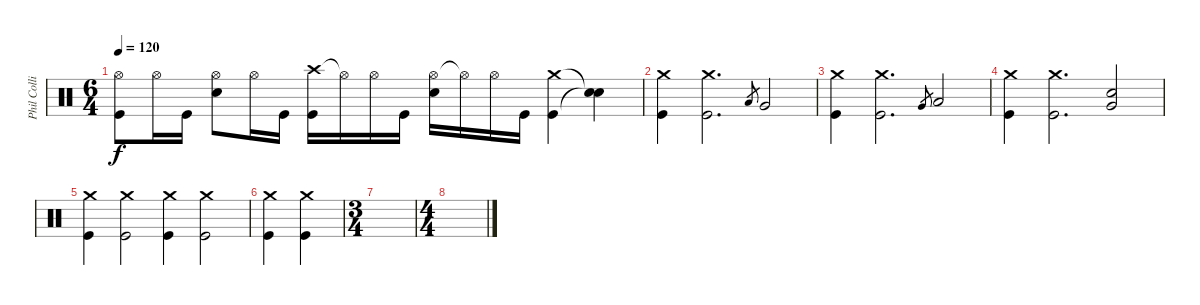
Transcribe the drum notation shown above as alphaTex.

\track ("Phil Collins" "Phil Colli") {instrument percussion}
\staff
\articulation defaults
\ts (6 4)
\tempo 120
\clef neutral
\ks c
("Hi-Hat (open)" "Kick (hit)").8{dy f} "Hi-Hat (open)".16 "Kick (hit)".16 ("Hi-Hat (open)" "Electric Snare (hit)").8 "Hi-Hat (open)".16 "Kick (hit)".16 ("Crash high (hit)" "Kick (hit)").16 "Hi-Hat (open)"{t}.16 "Hi-Hat (open)".16 "Kick (hit)".16 ("Hi-Hat (open)" "Electric Snare (hit)").16 "Hi-Hat (open)"{t}.16 "Hi-Hat (open)".16 "Kick (hit)".16 ("Kick (hit)" "Crash medium (hit)").4 ("Snare (hit)"{t} "Snare (hit)"{t}).4 |
("Kick (hit)" "Crash medium (hit)").4 ("Kick (hit)" "Crash medium (hit)").2{d} "Low Tom (hit)".8{gr} "Very Low Tom (hit)".2 |
("Kick (hit)" "Crash medium (hit)").4 ("Kick (hit)" "Crash medium (hit)").2{d} "Very Low Tom (hit)".8{gr} "Low Floor Tom (hit)".2 |
("Kick (hit)" "Crash medium (hit)").4 ("Kick (hit)" "Crash medium (hit)").2{d} ("Electric Snare (hit)" "Very Low Tom (hit)").2 |
("Kick (hit)" "Crash medium (hit)").4 ("Kick (hit)" "Crash medium (hit)").2 ("Kick (hit)" "Crash medium (hit)").4 ("Kick (hit)" "Crash medium (hit)").2 |
("Kick (hit)" "Crash medium (hit)").4 ("Kick (hit)" "Crash medium (hit)").4 |
\ts (3 4)
|
\ts (4 4)
